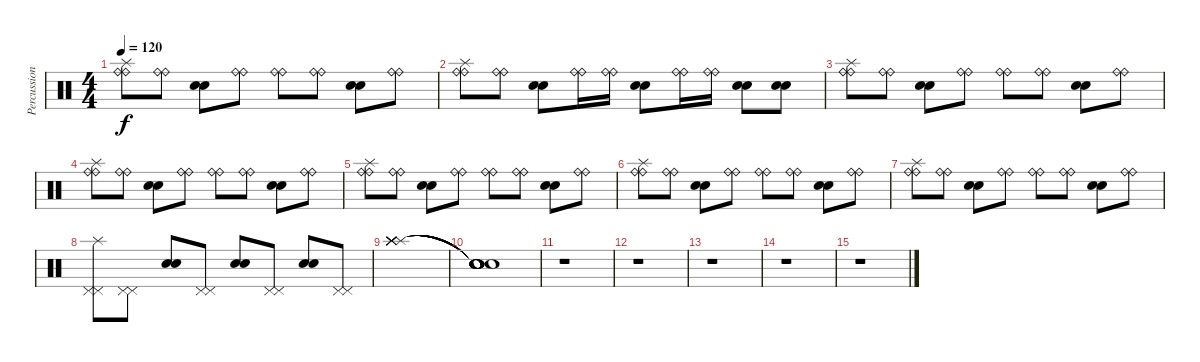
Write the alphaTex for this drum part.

\track ("Percussioni" "Percussion") {instrument percussion}
\staff {score}
\articulation defaults
\ts (4 4)
\tempo 120
\clef neutral
\ks c
("Splash (hit)" "Ride (bell)" "Ride (bell)").8{dy f} ("Ride (bell)" "Ride (bell)").8 ("Snare (hit) 2" "Snare (hit) 2").8 ("Ride (bell)" "Ride (bell)").8 ("Ride (bell)" "Ride (bell)").8 ("Ride (bell)" "Ride (bell)").8 ("Snare (hit) 2" "Snare (hit) 2").8 ("Ride (bell)" "Ride (bell)").8 |
("Splash (hit)" "Ride (bell)" "Ride (bell)").8 ("Ride (bell)" "Ride (bell)").8 ("Snare (hit) 2" "Snare (hit) 2").8 ("Ride (bell)" "Ride (bell)").16 ("Ride (bell)" "Ride (bell)").16 ("Snare (hit) 2" "Snare (hit) 2").8 ("Ride (bell)" "Ride (bell)").16 ("Ride (bell)" "Ride (bell)").16 ("Snare (hit) 2" "Snare (hit) 2").8 ("Snare (hit) 2" "Snare (hit) 2").8 |
("Splash (hit)" "Ride (bell)" "Ride (bell)").8 ("Ride (bell)" "Ride (bell)").8 ("Snare (hit) 2" "Snare (hit) 2").8 ("Ride (bell)" "Ride (bell)").8 ("Ride (bell)" "Ride (bell)").8 ("Ride (bell)" "Ride (bell)").8 ("Snare (hit) 2" "Snare (hit) 2").8 ("Ride (bell)" "Ride (bell)").8 |
("Splash (hit)" "Ride (bell)" "Ride (bell)").8 ("Ride (bell)" "Ride (bell)").8 ("Snare (hit) 2" "Snare (hit) 2").8 ("Ride (bell)" "Ride (bell)").8 ("Ride (bell)" "Ride (bell)").8 ("Ride (bell)" "Ride (bell)").8 ("Snare (hit) 2" "Snare (hit) 2").8 ("Ride (bell)" "Ride (bell)").8 |
("Splash (hit)" "Ride (bell)" "Ride (bell)").8 ("Ride (bell)" "Ride (bell)").8 ("Snare (hit) 2" "Snare (hit) 2").8 ("Ride (bell)" "Ride (bell)").8 ("Ride (bell)" "Ride (bell)").8 ("Ride (bell)" "Ride (bell)").8 ("Snare (hit) 2" "Snare (hit) 2").8 ("Ride (bell)" "Ride (bell)").8 |
("Splash (hit)" "Ride (bell)" "Ride (bell)").8 ("Ride (bell)" "Ride (bell)").8 ("Snare (hit) 2" "Snare (hit) 2").8 ("Ride (bell)" "Ride (bell)").8 ("Ride (bell)" "Ride (bell)").8 ("Ride (bell)" "Ride (bell)").8 ("Snare (hit) 2" "Snare (hit) 2").8 ("Ride (bell)" "Ride (bell)").8 |
("Splash (hit)" "Ride (bell)" "Ride (bell)").8 ("Ride (bell)" "Ride (bell)").8 ("Snare (hit) 2" "Snare (hit) 2").8 ("Ride (bell)" "Ride (bell)").8 ("Ride (bell)" "Ride (bell)").8 ("Ride (bell)" "Ride (bell)").8 ("Snare (hit) 2" "Snare (hit) 2").8 ("Ride (bell)" "Ride (bell)").8 |
("Splash (hit)" "Pedal Hi-Hat (hit)" "Pedal Hi-Hat (hit)").8 ("Pedal Hi-Hat (hit)" "Pedal Hi-Hat (hit)").8 ("Snare (hit) 2" "Snare (hit) 2").8 ("Pedal Hi-Hat (hit)" "Pedal Hi-Hat (hit)").8 ("Snare (hit) 2" "Snare (hit) 2").8 ("Pedal Hi-Hat (hit)" "Pedal Hi-Hat (hit)").8 ("Snare (hit) 2" "Snare (hit) 2").8 ("Pedal Hi-Hat (hit)" "Pedal Hi-Hat (hit)").8 |
("Splash (hit)" "Splash (hit)" "Splash (hit)" "Splash (hit)" "Splash (hit)" "Splash (hit)").1 |
("Snare (hit)"{t} "Snare (hit)"{t} "Snare (hit)"{t} "Snare (hit)"{t} "Snare (hit)"{t} "Snare (hit)"{t}).1 |
r.1 |
r.1 |
r.1 |
r.1 |
r.1
